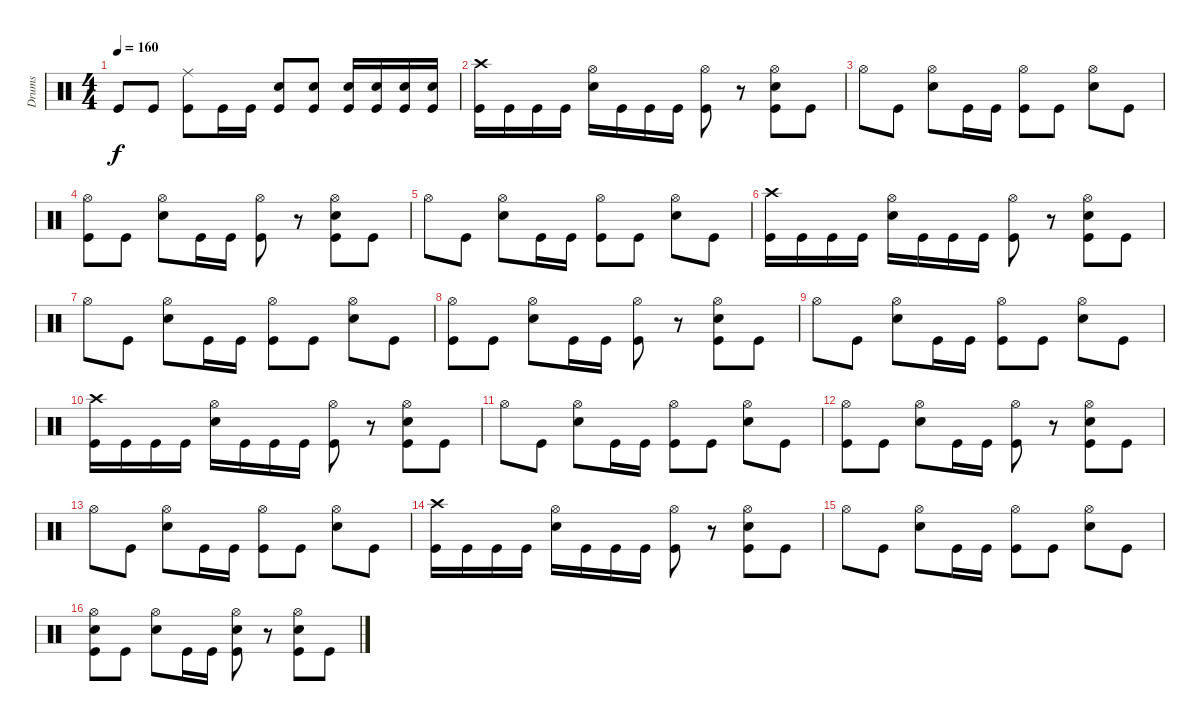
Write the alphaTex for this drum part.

\track ("Drums" "Drums") {instrument percussion}
\staff {score}
\articulation defaults
\ts (4 4)
\tempo 160
\clef neutral
\ks c "Kick (hit)".8{dy f} "Kick (hit)".8
("Ride (middle)" "Kick (hit)").8 "Kick (hit)".16 "Kick (hit)".16 ("Electric Snare (hit)" "Kick (hit)").8 ("Electric Snare (hit)" "Kick (hit)").8 ("Electric Snare (hit)" "Kick (hit)").16 ("Electric Snare (hit)" "Kick (hit)").16 ("Electric Snare (hit)" "Kick (hit)").16 ("Electric Snare (hit)" "Kick (hit)").16 |
("Crash high (hit)" "Kick (hit)").16 "Kick (hit)".16 "Kick (hit)".16 "Kick (hit)".16 ("Hi-Hat (open)" "Electric Snare (hit)").16 "Kick (hit)".16 "Kick (hit)".16 "Kick (hit)".16 ("Hi-Hat (open)" "Kick (hit)").8 r.8 ("Hi-Hat (open)" "Electric Snare (hit)" "Kick (hit)").8 "Kick (hit)".8 |
"Hi-Hat (open)".8 "Kick (hit)".8 ("Hi-Hat (open)" "Electric Snare (hit)").8 "Kick (hit)".16 "Kick (hit)".16 ("Hi-Hat (open)" "Kick (hit)").8 "Kick (hit)".8 ("Hi-Hat (open)" "Electric Snare (hit)").8 "Kick (hit)".8 |
("Hi-Hat (open)" "Kick (hit)").8 "Kick (hit)".8 ("Hi-Hat (open)" "Electric Snare (hit)").8 "Kick (hit)".16 "Kick (hit)".16 ("Hi-Hat (open)" "Kick (hit)").8 r.8 ("Hi-Hat (open)" "Electric Snare (hit)" "Kick (hit)").8 "Kick (hit)".8 |
"Hi-Hat (open)".8 "Kick (hit)".8 ("Hi-Hat (open)" "Electric Snare (hit)").8 "Kick (hit)".16 "Kick (hit)".16 ("Hi-Hat (open)" "Kick (hit)").8 "Kick (hit)".8 ("Hi-Hat (open)" "Electric Snare (hit)").8 "Kick (hit)".8 |
("Crash high (hit)" "Kick (hit)").16 "Kick (hit)".16 "Kick (hit)".16 "Kick (hit)".16 ("Hi-Hat (open)" "Electric Snare (hit)").16 "Kick (hit)".16 "Kick (hit)".16 "Kick (hit)".16 ("Hi-Hat (open)" "Kick (hit)").8 r.8 ("Hi-Hat (open)" "Electric Snare (hit)" "Kick (hit)").8 "Kick (hit)".8 |
"Hi-Hat (open)".8 "Kick (hit)".8 ("Hi-Hat (open)" "Electric Snare (hit)").8 "Kick (hit)".16 "Kick (hit)".16 ("Hi-Hat (open)" "Kick (hit)").8 "Kick (hit)".8 ("Hi-Hat (open)" "Electric Snare (hit)").8 "Kick (hit)".8 |
("Hi-Hat (open)" "Kick (hit)").8 "Kick (hit)".8 ("Hi-Hat (open)" "Electric Snare (hit)").8 "Kick (hit)".16 "Kick (hit)".16 ("Hi-Hat (open)" "Kick (hit)").8 r.8 ("Hi-Hat (open)" "Electric Snare (hit)" "Kick (hit)").8 "Kick (hit)".8 |
"Hi-Hat (open)".8 "Kick (hit)".8 ("Hi-Hat (open)" "Electric Snare (hit)").8 "Kick (hit)".16 "Kick (hit)".16 ("Hi-Hat (open)" "Kick (hit)").8 "Kick (hit)".8 ("Hi-Hat (open)" "Electric Snare (hit)").8 "Kick (hit)".8 |
("Crash high (hit)" "Kick (hit)").16 "Kick (hit)".16 "Kick (hit)".16 "Kick (hit)".16 ("Hi-Hat (open)" "Electric Snare (hit)").16 "Kick (hit)".16 "Kick (hit)".16 "Kick (hit)".16 ("Hi-Hat (open)" "Kick (hit)").8 r.8 ("Hi-Hat (open)" "Electric Snare (hit)" "Kick (hit)").8 "Kick (hit)".8 |
"Hi-Hat (open)".8 "Kick (hit)".8 ("Hi-Hat (open)" "Electric Snare (hit)").8 "Kick (hit)".16 "Kick (hit)".16 ("Hi-Hat (open)" "Kick (hit)").8 "Kick (hit)".8 ("Hi-Hat (open)" "Electric Snare (hit)").8 "Kick (hit)".8 |
("Hi-Hat (open)" "Kick (hit)").8 "Kick (hit)".8 ("Hi-Hat (open)" "Electric Snare (hit)").8 "Kick (hit)".16 "Kick (hit)".16 ("Hi-Hat (open)" "Kick (hit)").8 r.8 ("Hi-Hat (open)" "Electric Snare (hit)" "Kick (hit)").8 "Kick (hit)".8 |
"Hi-Hat (open)".8 "Kick (hit)".8 ("Hi-Hat (open)" "Electric Snare (hit)").8 "Kick (hit)".16 "Kick (hit)".16 ("Hi-Hat (open)" "Kick (hit)").8 "Kick (hit)".8 ("Hi-Hat (open)" "Electric Snare (hit)").8 "Kick (hit)".8 |
("Crash high (hit)" "Kick (hit)").16 "Kick (hit)".16 "Kick (hit)".16 "Kick (hit)".16 ("Hi-Hat (open)" "Electric Snare (hit)").16 "Kick (hit)".16 "Kick (hit)".16 "Kick (hit)".16 ("Hi-Hat (open)" "Kick (hit)").8 r.8 ("Hi-Hat (open)" "Electric Snare (hit)" "Kick (hit)").8 "Kick (hit)".8 |
"Hi-Hat (open)".8 "Kick (hit)".8 ("Hi-Hat (open)" "Electric Snare (hit)").8 "Kick (hit)".16 "Kick (hit)".16 ("Hi-Hat (open)" "Kick (hit)").8 "Kick (hit)".8 ("Hi-Hat (open)" "Electric Snare (hit)").8 "Kick (hit)".8 |
("Hi-Hat (open)" "Electric Snare (hit)" "Kick (hit)").8 "Kick (hit)".8 ("Hi-Hat (open)" "Electric Snare (hit)").8 "Kick (hit)".16 "Kick (hit)".16 ("Hi-Hat (open)" "Electric Snare (hit)" "Kick (hit)").8 r.8 ("Hi-Hat (open)" "Electric Snare (hit)" "Kick (hit)").8 "Kick (hit)".8
